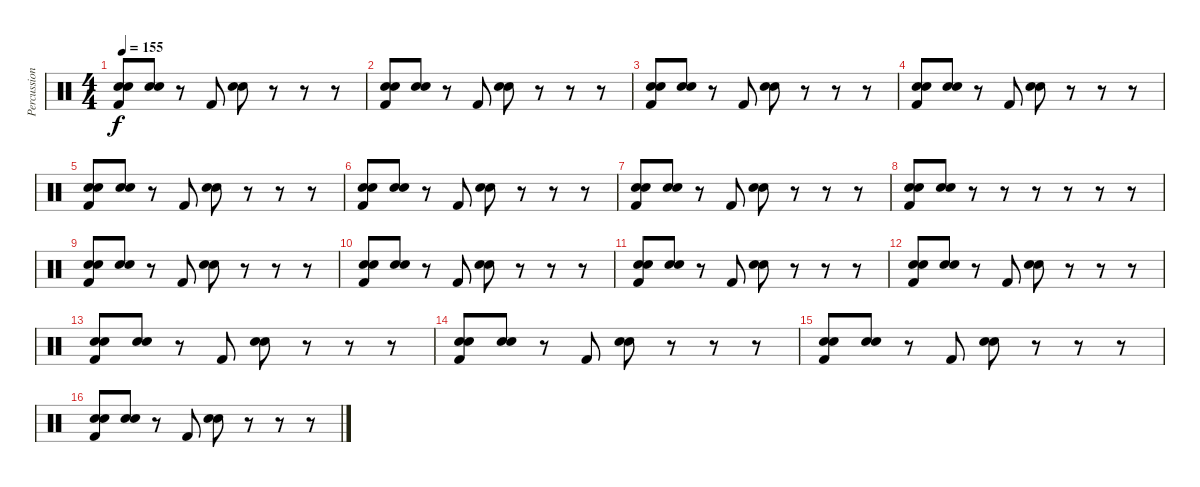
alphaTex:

\track ("Percussion" "Percussion") {instrument percussion}
\staff {score}
\articulation defaults
\ts (4 4)
\tempo 155
\clef neutral
\ks c
("Hand Clap (hit)" "Snare (hit) 2" "Kick (hit) 2").8{dy f} ("Hand Clap (hit)" "Snare (hit) 2").8 r.8 "Kick (hit) 2".8 ("Hand Clap (hit)" "Snare (hit) 2").8 r.8 r.8 r.8 |
("Hand Clap (hit)" "Snare (hit) 2" "Kick (hit) 2").8 ("Hand Clap (hit)" "Snare (hit) 2").8 r.8 "Kick (hit) 2".8 ("Hand Clap (hit)" "Snare (hit) 2").8 r.8 r.8 r.8 |
("Hand Clap (hit)" "Snare (hit) 2" "Kick (hit) 2").8 ("Hand Clap (hit)" "Snare (hit) 2").8 r.8 "Kick (hit) 2".8 ("Hand Clap (hit)" "Snare (hit) 2").8 r.8 r.8 r.8 |
("Hand Clap (hit)" "Snare (hit) 2" "Kick (hit) 2").8 ("Hand Clap (hit)" "Snare (hit) 2").8 r.8 "Kick (hit) 2".8 ("Hand Clap (hit)" "Snare (hit) 2").8 r.8 r.8 r.8 |
("Hand Clap (hit)" "Snare (hit) 2" "Kick (hit) 2").8 ("Hand Clap (hit)" "Snare (hit) 2").8 r.8 "Kick (hit) 2".8 ("Hand Clap (hit)" "Snare (hit) 2").8 r.8 r.8 r.8 |
("Hand Clap (hit)" "Snare (hit) 2" "Kick (hit) 2").8 ("Hand Clap (hit)" "Snare (hit) 2").8 r.8 "Kick (hit) 2".8 ("Hand Clap (hit)" "Snare (hit) 2").8 r.8 r.8 r.8 |
("Hand Clap (hit)" "Snare (hit) 2" "Kick (hit) 2").8 ("Hand Clap (hit)" "Snare (hit) 2").8 r.8 "Kick (hit) 2".8 ("Hand Clap (hit)" "Snare (hit) 2").8 r.8 r.8 r.8 |
("Hand Clap (hit)" "Snare (hit) 2" "Kick (hit) 2").8 ("Hand Clap (hit)" "Snare (hit) 2").8 r.8 r.8 r.8 r.8 r.8 r.8 |
("Hand Clap (hit)" "Snare (hit) 2" "Kick (hit) 2").8 ("Hand Clap (hit)" "Snare (hit) 2").8 r.8 "Kick (hit) 2".8 ("Hand Clap (hit)" "Snare (hit) 2").8 r.8 r.8 r.8 |
("Hand Clap (hit)" "Snare (hit) 2" "Kick (hit) 2").8 ("Hand Clap (hit)" "Snare (hit) 2").8 r.8 "Kick (hit) 2".8 ("Hand Clap (hit)" "Snare (hit) 2").8 r.8 r.8 r.8 |
("Hand Clap (hit)" "Snare (hit) 2" "Kick (hit) 2").8 ("Hand Clap (hit)" "Snare (hit) 2").8 r.8 "Kick (hit) 2".8 ("Hand Clap (hit)" "Snare (hit) 2").8 r.8 r.8 r.8 |
("Hand Clap (hit)" "Snare (hit) 2" "Kick (hit) 2").8 ("Hand Clap (hit)" "Snare (hit) 2").8 r.8 "Kick (hit) 2".8 ("Hand Clap (hit)" "Snare (hit) 2").8 r.8 r.8 r.8 |
("Hand Clap (hit)" "Snare (hit) 2" "Kick (hit) 2").8 ("Hand Clap (hit)" "Snare (hit) 2").8 r.8 "Kick (hit) 2".8 ("Hand Clap (hit)" "Snare (hit) 2").8 r.8 r.8 r.8 |
("Hand Clap (hit)" "Snare (hit) 2" "Kick (hit) 2").8 ("Hand Clap (hit)" "Snare (hit) 2").8 r.8 "Kick (hit) 2".8 ("Hand Clap (hit)" "Snare (hit) 2").8 r.8 r.8 r.8 |
("Hand Clap (hit)" "Snare (hit) 2" "Kick (hit) 2").8 ("Hand Clap (hit)" "Snare (hit) 2").8 r.8 "Kick (hit) 2".8 ("Hand Clap (hit)" "Snare (hit) 2").8 r.8 r.8 r.8 |
("Hand Clap (hit)" "Snare (hit) 2" "Kick (hit) 2").8 ("Hand Clap (hit)" "Snare (hit) 2").8 r.8 "Kick (hit) 2".8 ("Hand Clap (hit)" "Snare (hit) 2").8 r.8 r.8 r.8
